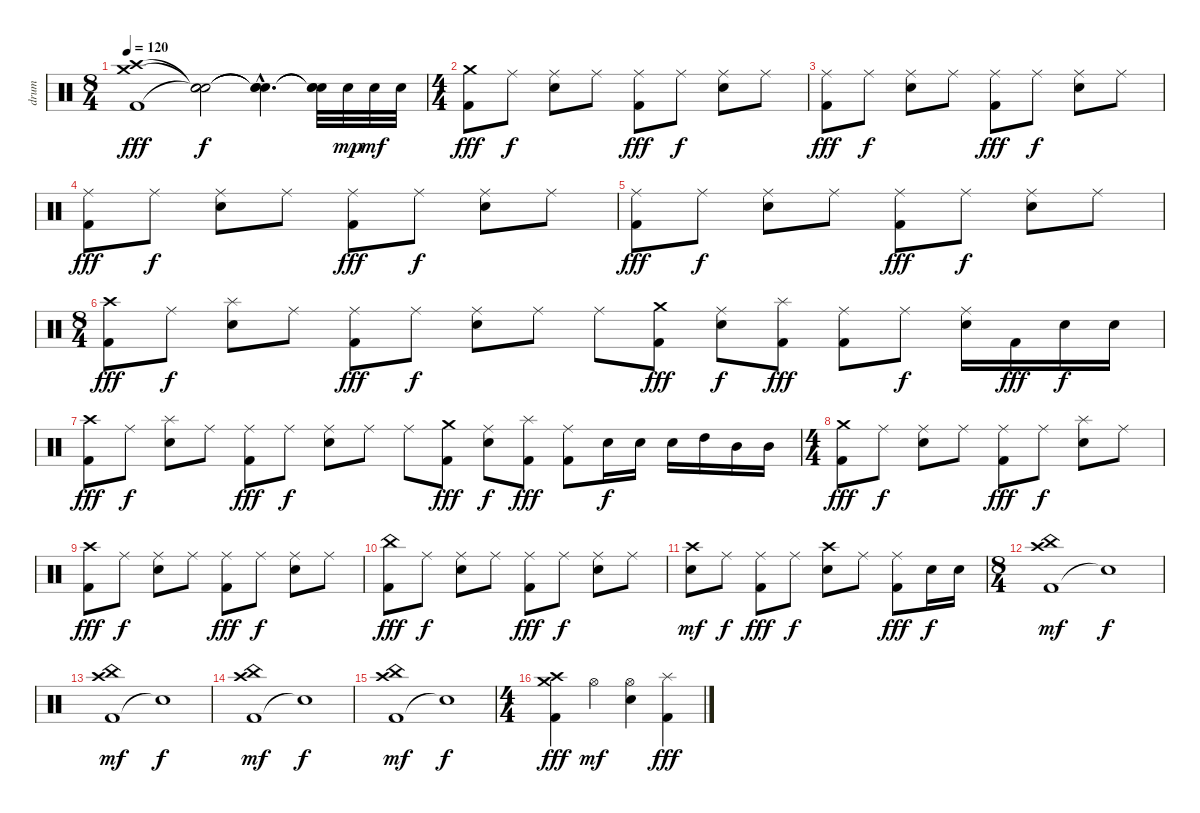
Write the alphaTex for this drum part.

\track ("drum" "drum") {instrument percussion}
\staff {score}
\articulation defaults
\ts (8 4)
\tempo 120
\clef neutral
\ks c
("Crash medium (hit)" "Crash high (hit)" "Kick (hit) 2").1{dy fff} ("Snare (hit)"{t} "Snare (hit)"{t} "Snare (hit)"{t}).2{dy f} ("Snare (hit)"{hac t} "Snare (hit)"{hac t} "Snare (hit)"{hac t}).4{d} ("Snare (hit)"{t} "Snare (hit)"{t} "Snare (hit)"{t}).32 "Electric Snare (hit)".32{dy mp} "Electric Snare (hit)".32{dy mf} "Electric Snare (hit)".32 |
\ts (4 4)
("Crash medium (hit)" "Kick (hit) 2").8{dy fff} "Ride (middle)".8{dy f} ("Ride (middle)" "Electric Snare (hit)").8 "Ride (middle)".8 ("Ride (middle)" "Kick (hit) 2").8{dy fff} "Ride (middle)".8{dy f} ("Ride (middle)" "Electric Snare (hit)").8 "Ride (middle)".8 |
("Ride (middle)" "Kick (hit) 2").8{dy fff} "Ride (middle)".8{dy f} ("Ride (middle)" "Electric Snare (hit)").8 "Ride (middle)".8 ("Ride (middle)" "Kick (hit) 2").8{dy fff} "Ride (middle)".8{dy f} ("Ride (middle)" "Electric Snare (hit)").8 "Ride (middle)".8 |
("Ride (middle)" "Kick (hit) 2").8{dy fff} "Ride (middle)".8{dy f} ("Ride (middle)" "Electric Snare (hit)").8 "Ride (middle)".8 ("Ride (middle)" "Kick (hit) 2").8{dy fff} "Ride (middle)".8{dy f} ("Ride (middle)" "Electric Snare (hit)").8 "Ride (middle)".8 |
("Ride (middle)" "Kick (hit) 2").8{dy fff} "Ride (middle)".8{dy f} ("Ride (middle)" "Electric Snare (hit)").8 "Ride (middle)".8 ("Ride (middle)" "Kick (hit) 2").8{dy fff} "Ride (middle)".8{dy f} ("Ride (middle)" "Electric Snare (hit)").8 "Ride (middle)".8 |
\ts (8 4)
("Crash high (hit)" "Kick (hit) 2").8{dy fff} "Ride (middle)".8{dy f} ("Splash (hit)" "Electric Snare (hit)").8 "Ride (middle)".8 ("Ride (middle)" "Kick (hit) 2").8{dy fff} "Ride (middle)".8{dy f} ("Ride (middle)" "Electric Snare (hit)").8 "Ride (middle)".8 "Ride (middle)".8 ("Crash medium (hit)" "Kick (hit) 2").8{dy fff} ("Ride (middle)" "Electric Snare (hit)").8{dy f} ("Splash (hit)" "Kick (hit) 2").8{dy fff} ("Ride (middle)" "Kick (hit) 2").8 "Ride (middle)".8{dy f} ("Ride (middle)" "Electric Snare (hit)").16 "Kick (hit) 2".16{dy fff} "Electric Snare (hit)".16{dy f} "Electric Snare (hit)".16 |
("Crash high (hit)" "Kick (hit) 2").8{dy fff} "Ride (middle)".8{dy f} ("Splash (hit)" "Electric Snare (hit)").8 "Ride (middle)".8 ("Ride (middle)" "Kick (hit) 2").8{dy fff} "Ride (middle)".8{dy f} ("Ride (middle)" "Electric Snare (hit)").8 "Ride (middle)".8 "Ride (middle)".8 ("Crash medium (hit)" "Kick (hit) 2").8{dy fff} ("Ride (middle)" "Electric Snare (hit)").8{dy f} ("Splash (hit)" "Kick (hit) 2").8{dy fff} ("Ride (middle)" "Kick (hit) 2").8 "Electric Snare (hit)".16{dy f} "Electric Snare (hit)".16 "Electric Snare (hit)".16 "High Tom (hit)".16 "Mid Tom (hit)".16 "Mid Tom (hit)".16 |
\ts (4 4)
("Crash medium (hit)" "Kick (hit) 2").8{dy fff} "Ride (middle)".8{dy f} ("Ride (middle)" "Electric Snare (hit)").8 "Ride (middle)".8 ("Ride (middle)" "Kick (hit) 2").8{dy fff} "Ride (middle)".8{dy f} ("Splash (hit)" "Electric Snare (hit)").8 "Ride (middle)".8 |
("Crash high (hit)" "Kick (hit) 2").8{dy fff} "Ride (middle)".8{dy f} ("Ride (middle)" "Electric Snare (hit)").8 "Ride (middle)".8 ("Ride (middle)" "Kick (hit) 2").8{dy fff} "Ride (middle)".8{dy f} ("Ride (middle)" "Electric Snare (hit)").8 "Ride (middle)".8 |
("China (hit)" "Kick (hit) 2").8{dy fff} "Ride (middle)".8{dy f} ("Ride (middle)" "Electric Snare (hit)").8 "Ride (middle)".8 ("Ride (middle)" "Kick (hit) 2").8{dy fff} "Ride (middle)".8{dy f} ("Ride (middle)" "Electric Snare (hit)").8 "Ride (middle)".8 |
("Crash high (hit)" "Electric Snare (hit)").8{dy mf} "Ride (middle)".8{dy f} ("Ride (middle)" "Kick (hit) 2").8{dy fff} "Ride (middle)".8{dy f} ("Crash high (hit)" "Electric Snare (hit)").8 "Ride (middle)".8 ("Ride (middle)" "Kick (hit) 2").8{dy fff} "Electric Snare (hit)".16{dy f} "Electric Snare (hit)".16 |
\ts (8 4)
("Kick (hit) 2" "Crash high (hit)" "China (hit)").1{dy mf} "Snare (hit)"{t}.1{dy f} |
("Kick (hit) 2" "Crash high (hit)" "China (hit)").1{dy mf} "Snare (hit)"{t}.1{dy f} |
("Kick (hit) 2" "Crash high (hit)" "China (hit)").1{dy mf} "Snare (hit)"{t}.1{dy f} |
("Kick (hit) 2" "Crash high (hit)" "China (hit)").1{dy mf} "Snare (hit)"{t}.1{dy f} |
\ts (4 4)
("Crash medium (hit)" "Crash high (hit)" "Kick (hit) 2").4{dy fff} "Hi-Hat (open)".4{dy mf} ("Hi-Hat (open)" "Electric Snare (hit)").4 ("Splash (hit)" "Kick (hit) 2").4{dy fff}
